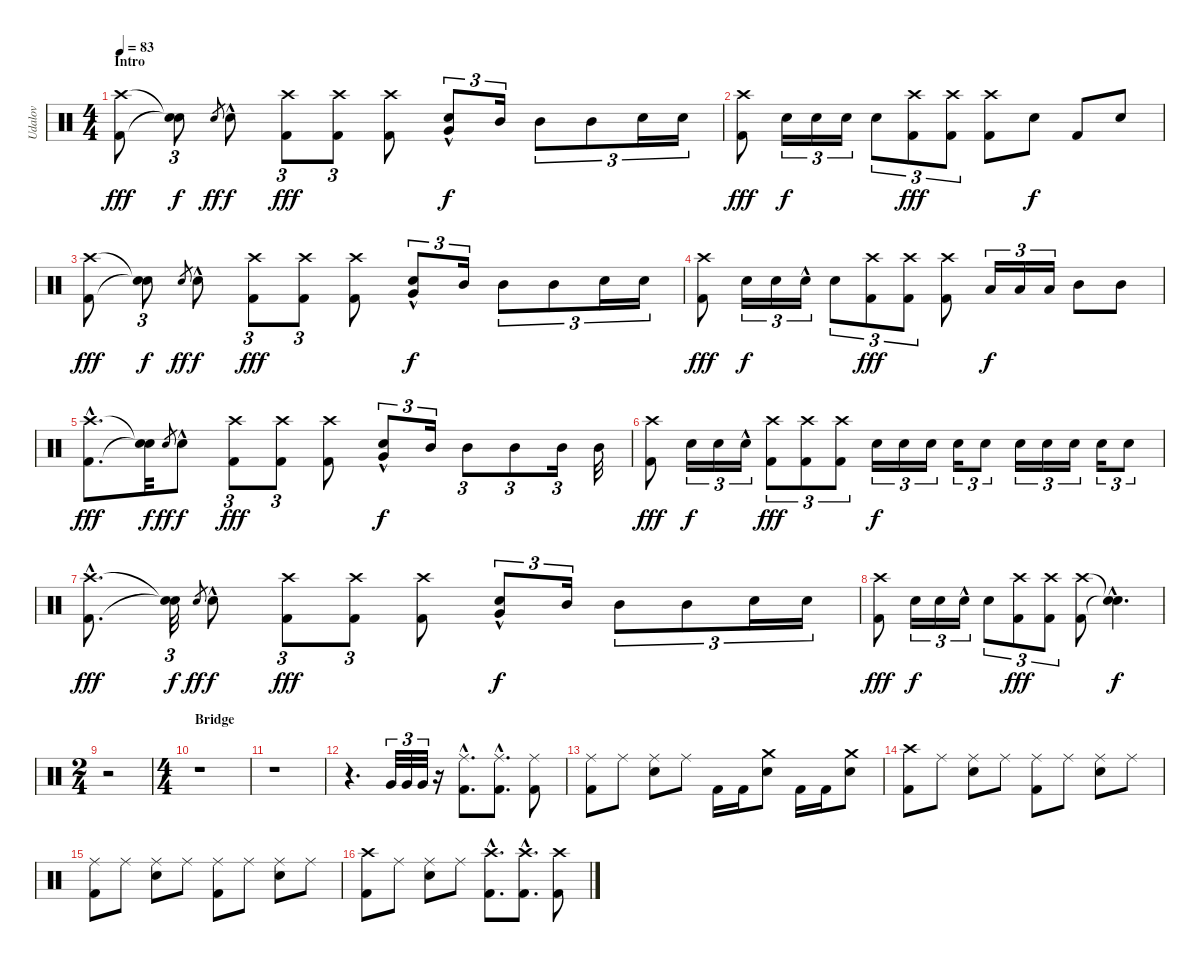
\track ("Udalov" "Udalov") {instrument percussion}
\staff {score}
\articulation defaults
\ts (4 4)
\section ("" "Intro")
\tempo 83
\clef neutral
\ks c
("Kick (hit) 2" "Crash high (hit)").8{dy fff} ("Snare (hit)"{t} "Snare (hit)"{t}).8{tu (3 2) dy f} "Snare (hit) 2".8{gr dy ff} "Snare (hit) 2"{hac}.8{dy f} ("Kick (hit) 2" "Crash high (hit)").8{tu (3 2) dy fff} ("Kick (hit) 2" "Crash high (hit)").8{tu (3 2)} ("Kick (hit) 2" "Crash high (hit)").8 ("Snare (hit) 2"{hac} "Very Low Tom (hit)").8{tu (3 2) dy f} "Mid Tom (hit)".16{tu (3 2)} "Mid Tom (hit)".8{tu (3 2)} "Mid Tom (hit)".8{tu (3 2)} "Snare (hit) 2".16{tu (3 2)} "Snare (hit) 2".16{tu (3 2)} |
("Kick (hit) 2" "Crash high (hit)").8{dy fff} "Snare (hit) 2".16{tu (3 2) dy f} "Snare (hit) 2".16{tu (3 2)} "Snare (hit) 2".16{tu (3 2)} "Snare (hit) 2".8{tu (3 2)} ("Kick (hit) 2" "Crash high (hit)").8{tu (3 2) dy fff} ("Kick (hit) 2" "Crash high (hit)").8{tu (3 2)} ("Kick (hit) 2" "Crash high (hit)").8 "Snare (hit) 2".8{dy f} "Kick (hit) 2".8 "Snare (hit) 2".8 |
("Kick (hit) 2" "Crash high (hit)").8{dy fff} ("Snare (hit)"{t} "Snare (hit)"{t}).8{tu (3 2) dy f} "Snare (hit) 2".8{gr dy ff} "Snare (hit) 2"{hac}.8{dy f} ("Kick (hit) 2" "Crash high (hit)").8{tu (3 2) dy fff} ("Kick (hit) 2" "Crash high (hit)").8{tu (3 2)} ("Kick (hit) 2" "Crash high (hit)").8 ("Snare (hit) 2"{hac} "Very Low Tom (hit)").8{tu (3 2) dy f} "Mid Tom (hit)".16{tu (3 2)} "Mid Tom (hit)".8{tu (3 2)} "Mid Tom (hit)".8{tu (3 2)} "Snare (hit) 2".16{tu (3 2)} "Snare (hit) 2".16{tu (3 2)} |
("Kick (hit) 2" "Crash high (hit)").8{dy fff} "Snare (hit) 2".16{tu (3 2) dy f} "Snare (hit) 2".16{tu (3 2)} "Snare (hit) 2"{hac}.16{tu (3 2)} "Snare (hit) 2".8{tu (3 2)} ("Kick (hit) 2" "Crash high (hit)").8{tu (3 2) dy fff} ("Kick (hit) 2" "Crash high (hit)").8{tu (3 2)} ("Kick (hit) 2" "Crash high (hit)").8 "Low Tom (hit)".16{tu (3 2) dy f} "Low Tom (hit)".16{tu (3 2)} "Low Tom (hit)".16{tu (3 2)} "Mid Tom (hit)".8 "Mid Tom (hit)".8 |
("Kick (hit) 2"{hac} "Crash high (hit)"{hac}).8{d dy fff} ("Snare (hit)"{t} "Snare (hit)"{t}).32{dy f} "Snare (hit) 2".8{gr dy ff} "Snare (hit) 2"{hac}.8{dy f} ("Kick (hit) 2" "Crash high (hit)").8{tu (3 2) dy fff} ("Kick (hit) 2" "Crash high (hit)").8{tu (3 2)} ("Kick (hit) 2" "Crash high (hit)").8 ("Snare (hit) 2"{hac} "Very Low Tom (hit)").8{tu (3 2) dy f} "Mid Tom (hit)".16{tu (3 2)} "Mid Tom (hit)".8{tu (3 2)} "Mid Tom (hit)".8{tu (3 2)} "Mid Tom (hit)".16{tu (3 2)} "Mid Tom (hit)".32 |
("Kick (hit) 2" "Crash high (hit)").8{dy fff} "Snare (hit) 2".16{tu (3 2) dy f} "Snare (hit) 2".16{tu (3 2)} "Snare (hit) 2"{hac}.16{tu (3 2)} ("Kick (hit) 2" "Crash high (hit)").8{tu (3 2) dy fff} ("Kick (hit) 2" "Crash high (hit)").8{tu (3 2)} ("Kick (hit) 2" "Crash high (hit)").8{tu (3 2)} "Snare (hit) 2".16{tu (3 2) dy f} "Snare (hit) 2".16{tu (3 2)} "Snare (hit) 2".16{tu (3 2)} "Snare (hit) 2".16{tu (3 2)} "Snare (hit) 2".8{tu (3 2)} "Snare (hit) 2".16{tu (3 2)} "Snare (hit) 2".16{tu (3 2)} "Snare (hit) 2".16{tu (3 2)} "Snare (hit) 2".16{tu (3 2)} "Snare (hit) 2".8{tu (3 2)} |
("Kick (hit) 2"{hac} "Crash high (hit)"{hac}).8{d dy fff} ("Snare (hit)"{t} "Snare (hit)"{t}).32{tu (3 2) dy f} "Snare (hit) 2".8{gr dy ff} "Snare (hit) 2"{hac}.8{dy f} ("Kick (hit) 2" "Crash high (hit)").8{tu (3 2) dy fff} ("Kick (hit) 2" "Crash high (hit)").8{tu (3 2)} ("Kick (hit) 2" "Crash high (hit)").8 ("Snare (hit) 2"{hac} "Very Low Tom (hit)").8{tu (3 2) dy f} "Mid Tom (hit)".16{tu (3 2)} "Mid Tom (hit)".8{tu (3 2)} "Mid Tom (hit)".8{tu (3 2)} "Snare (hit) 2".16{tu (3 2)} "Snare (hit) 2".16{tu (3 2)} |
("Kick (hit) 2" "Crash high (hit)").8{dy fff} "Snare (hit) 2".16{tu (3 2) dy f} "Snare (hit) 2".16{tu (3 2)} "Snare (hit) 2"{hac}.16{tu (3 2)} "Snare (hit) 2".8{tu (3 2)} ("Kick (hit) 2" "Crash high (hit)").8{tu (3 2) dy fff} ("Kick (hit) 2" "Crash high (hit)").8{tu (3 2)} ("Kick (hit) 2" "Crash high (hit)").8 ("Snare (hit)"{hac t} "Snare (hit)"{hac t}).4{d dy f} |
\ts (2 4)
r.2 |
\ts (4 4)
\section ("" "Bridge")
r.1 |
r.1 |
r.4{d} "Very Low Tom (hit)".32{tu (3 2)} "Very Low Tom (hit)".32{tu (3 2)} "Very Low Tom (hit)".32{tu (3 2)} r.16 ("Kick (hit) 2"{hac} "Ride (middle)"{hac}).8{d} ("Kick (hit) 2"{hac} "Ride (middle)"{hac}).8{d} ("Kick (hit) 2" "Ride (middle)").8 |
("Kick (hit) 2" "Ride (middle)").8 "Ride (middle)".8 ("Snare (hit) 2" "Ride (middle)").8 "Ride (middle)".8 "Kick (hit) 2".16 "Kick (hit) 2".16 ("Snare (hit) 2" "Crash medium (hit)").8 "Kick (hit) 2".16 "Kick (hit) 2".16 ("Snare (hit) 2" "Crash medium (hit)").8 |
("Kick (hit) 2" "Crash high (hit)").8 "Ride (middle)".8 ("Snare (hit) 2" "Ride (middle)").8 "Ride (middle)".8 ("Kick (hit) 2" "Ride (middle)").8 "Ride (middle)".8 ("Snare (hit) 2" "Ride (middle)").8 "Ride (middle)".8 |
("Kick (hit) 2" "Ride (middle)").8 "Ride (middle)".8 ("Snare (hit) 2" "Ride (middle)").8 "Ride (middle)".8 ("Kick (hit) 2" "Ride (middle)").8 "Ride (middle)".8 ("Snare (hit) 2" "Ride (middle)").8 "Ride (middle)".8 |
("Kick (hit) 2" "Crash high (hit)").8 "Ride (middle)".8 ("Snare (hit) 2" "Ride (middle)").8 "Ride (middle)".8 ("Kick (hit) 2"{hac} "Crash high (hit)"{hac}).8{d} ("Kick (hit) 2"{hac} "Crash high (hit)"{hac}).8{d} ("Kick (hit) 2" "Crash high (hit)").8
